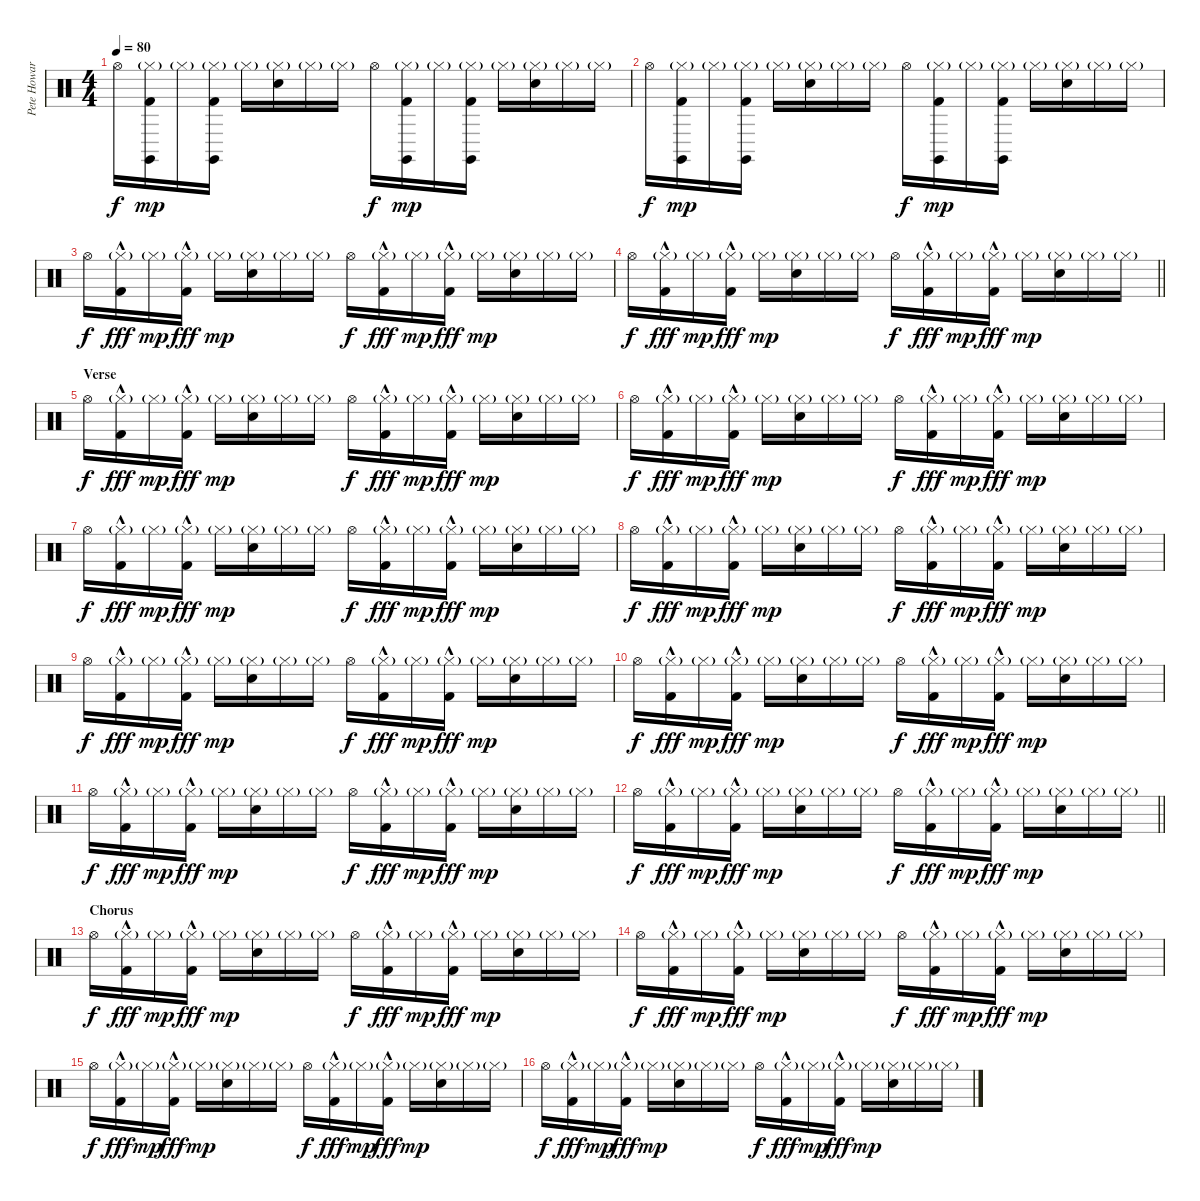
\track ("Pete Howard - Drums" "Pete Howar") {instrument percussion}
\staff {score}
\articulation defaults
\ts (4 4)
\tempo 80
\clef neutral
\ks c "Hi-Hat (open)".16{dy f}
("Hi-Hat (closed)"{g} "Claves (hit)" "Kick (hit) 2").16{dy mp} "Hi-Hat (closed)"{g}.16 ("Hi-Hat (closed)"{g} "Claves (hit)" "Kick (hit) 2").16 "Hi-Hat (closed)"{g}.16 ("Hi-Hat (closed)"{g} "Electric Snare (hit)").16 "Hi-Hat (closed)"{g}.16 "Hi-Hat (closed)"{g}.16 "Hi-Hat (open)".16{dy f} ("Hi-Hat (closed)"{g} "Claves (hit)" "Kick (hit) 2").16{dy mp} "Hi-Hat (closed)"{g}.16 ("Hi-Hat (closed)"{g} "Claves (hit)" "Kick (hit) 2").16 "Hi-Hat (closed)"{g}.16 ("Hi-Hat (closed)"{g} "Electric Snare (hit)").16 "Hi-Hat (closed)"{g}.16 "Hi-Hat (closed)"{g}.16 |
"Hi-Hat (open)".16{dy f} ("Hi-Hat (closed)"{g} "Claves (hit)" "Kick (hit) 2").16{dy mp} "Hi-Hat (closed)"{g}.16 ("Hi-Hat (closed)"{g} "Claves (hit)" "Kick (hit) 2").16 "Hi-Hat (closed)"{g}.16 ("Hi-Hat (closed)"{g} "Electric Snare (hit)").16 "Hi-Hat (closed)"{g}.16 "Hi-Hat (closed)"{g}.16 "Hi-Hat (open)".16{dy f} ("Hi-Hat (closed)"{g} "Claves (hit)" "Kick (hit) 2").16{dy mp} "Hi-Hat (closed)"{g}.16 ("Hi-Hat (closed)"{g} "Claves (hit)" "Kick (hit) 2").16 "Hi-Hat (closed)"{g}.16 ("Hi-Hat (closed)"{g} "Electric Snare (hit)").16 "Hi-Hat (closed)"{g}.16 "Hi-Hat (closed)"{g}.16 |
"Hi-Hat (open)".16{dy f} ("Hi-Hat (closed)"{g} "Kick (hit) 2"{hac}).16{dy fff} "Hi-Hat (closed)"{g}.16{dy mp} ("Hi-Hat (closed)"{g} "Kick (hit) 2"{hac}).16{dy fff} "Hi-Hat (closed)"{g}.16{dy mp} ("Hi-Hat (closed)"{g} "Electric Snare (hit)").16 "Hi-Hat (closed)"{g}.16 "Hi-Hat (closed)"{g}.16 "Hi-Hat (open)".16{dy f} ("Hi-Hat (closed)"{g} "Kick (hit) 2"{hac}).16{dy fff} "Hi-Hat (closed)"{g}.16{dy mp} ("Hi-Hat (closed)"{g} "Kick (hit) 2"{hac}).16{dy fff} "Hi-Hat (closed)"{g}.16{dy mp} ("Hi-Hat (closed)"{g} "Electric Snare (hit)").16 "Hi-Hat (closed)"{g}.16 "Hi-Hat (closed)"{g}.16 |
\barLineRight lightlight "Hi-Hat (open)".16{dy f}
("Hi-Hat (closed)"{g} "Kick (hit) 2"{hac}).16{dy fff} "Hi-Hat (closed)"{g}.16{dy mp} ("Hi-Hat (closed)"{g} "Kick (hit) 2"{hac}).16{dy fff} "Hi-Hat (closed)"{g}.16{dy mp} ("Hi-Hat (closed)"{g} "Electric Snare (hit)").16 "Hi-Hat (closed)"{g}.16 "Hi-Hat (closed)"{g}.16 "Hi-Hat (open)".16{dy f} ("Hi-Hat (closed)"{g} "Kick (hit) 2"{hac}).16{dy fff} "Hi-Hat (closed)"{g}.16{dy mp} ("Hi-Hat (closed)"{g} "Kick (hit) 2"{hac}).16{dy fff} "Hi-Hat (closed)"{g}.16{dy mp} ("Hi-Hat (closed)"{g} "Electric Snare (hit)").16 "Hi-Hat (closed)"{g}.16 "Hi-Hat (closed)"{g}.16 |
\section ("" "Verse")
"Hi-Hat (open)".16{dy f} ("Hi-Hat (closed)"{g} "Kick (hit) 2"{hac}).16{dy fff} "Hi-Hat (closed)"{g}.16{dy mp} ("Hi-Hat (closed)"{g} "Kick (hit) 2"{hac}).16{dy fff} "Hi-Hat (closed)"{g}.16{dy mp} ("Hi-Hat (closed)"{g} "Electric Snare (hit)").16 "Hi-Hat (closed)"{g}.16 "Hi-Hat (closed)"{g}.16 "Hi-Hat (open)".16{dy f} ("Hi-Hat (closed)"{g} "Kick (hit) 2"{hac}).16{dy fff} "Hi-Hat (closed)"{g}.16{dy mp} ("Hi-Hat (closed)"{g} "Kick (hit) 2"{hac}).16{dy fff} "Hi-Hat (closed)"{g}.16{dy mp} ("Hi-Hat (closed)"{g} "Electric Snare (hit)").16 "Hi-Hat (closed)"{g}.16 "Hi-Hat (closed)"{g}.16 |
"Hi-Hat (open)".16{dy f} ("Hi-Hat (closed)"{g} "Kick (hit) 2"{hac}).16{dy fff} "Hi-Hat (closed)"{g}.16{dy mp} ("Hi-Hat (closed)"{g} "Kick (hit) 2"{hac}).16{dy fff} "Hi-Hat (closed)"{g}.16{dy mp} ("Hi-Hat (closed)"{g} "Electric Snare (hit)").16 "Hi-Hat (closed)"{g}.16 "Hi-Hat (closed)"{g}.16 "Hi-Hat (open)".16{dy f} ("Hi-Hat (closed)"{g} "Kick (hit) 2"{hac}).16{dy fff} "Hi-Hat (closed)"{g}.16{dy mp} ("Hi-Hat (closed)"{g} "Kick (hit) 2"{hac}).16{dy fff} "Hi-Hat (closed)"{g}.16{dy mp} ("Hi-Hat (closed)"{g} "Electric Snare (hit)").16 "Hi-Hat (closed)"{g}.16 "Hi-Hat (closed)"{g}.16 |
"Hi-Hat (open)".16{dy f} ("Hi-Hat (closed)"{g} "Kick (hit) 2"{hac}).16{dy fff} "Hi-Hat (closed)"{g}.16{dy mp} ("Hi-Hat (closed)"{g} "Kick (hit) 2"{hac}).16{dy fff} "Hi-Hat (closed)"{g}.16{dy mp} ("Hi-Hat (closed)"{g} "Electric Snare (hit)").16 "Hi-Hat (closed)"{g}.16 "Hi-Hat (closed)"{g}.16 "Hi-Hat (open)".16{dy f} ("Hi-Hat (closed)"{g} "Kick (hit) 2"{hac}).16{dy fff} "Hi-Hat (closed)"{g}.16{dy mp} ("Hi-Hat (closed)"{g} "Kick (hit) 2"{hac}).16{dy fff} "Hi-Hat (closed)"{g}.16{dy mp} ("Hi-Hat (closed)"{g} "Electric Snare (hit)").16 "Hi-Hat (closed)"{g}.16 "Hi-Hat (closed)"{g}.16 |
"Hi-Hat (open)".16{dy f} ("Hi-Hat (closed)"{g} "Kick (hit) 2"{hac}).16{dy fff} "Hi-Hat (closed)"{g}.16{dy mp} ("Hi-Hat (closed)"{g} "Kick (hit) 2"{hac}).16{dy fff} "Hi-Hat (closed)"{g}.16{dy mp} ("Hi-Hat (closed)"{g} "Electric Snare (hit)").16 "Hi-Hat (closed)"{g}.16 "Hi-Hat (closed)"{g}.16 "Hi-Hat (open)".16{dy f} ("Hi-Hat (closed)"{g} "Kick (hit) 2"{hac}).16{dy fff} "Hi-Hat (closed)"{g}.16{dy mp} ("Hi-Hat (closed)"{g} "Kick (hit) 2"{hac}).16{dy fff} "Hi-Hat (closed)"{g}.16{dy mp} ("Hi-Hat (closed)"{g} "Electric Snare (hit)").16 "Hi-Hat (closed)"{g}.16 "Hi-Hat (closed)"{g}.16 |
"Hi-Hat (open)".16{dy f} ("Hi-Hat (closed)"{g} "Kick (hit) 2"{hac}).16{dy fff} "Hi-Hat (closed)"{g}.16{dy mp} ("Hi-Hat (closed)"{g} "Kick (hit) 2"{hac}).16{dy fff} "Hi-Hat (closed)"{g}.16{dy mp} ("Hi-Hat (closed)"{g} "Electric Snare (hit)").16 "Hi-Hat (closed)"{g}.16 "Hi-Hat (closed)"{g}.16 "Hi-Hat (open)".16{dy f} ("Hi-Hat (closed)"{g} "Kick (hit) 2"{hac}).16{dy fff} "Hi-Hat (closed)"{g}.16{dy mp} ("Hi-Hat (closed)"{g} "Kick (hit) 2"{hac}).16{dy fff} "Hi-Hat (closed)"{g}.16{dy mp} ("Hi-Hat (closed)"{g} "Electric Snare (hit)").16 "Hi-Hat (closed)"{g}.16 "Hi-Hat (closed)"{g}.16 |
"Hi-Hat (open)".16{dy f} ("Hi-Hat (closed)"{g} "Kick (hit) 2"{hac}).16{dy fff} "Hi-Hat (closed)"{g}.16{dy mp} ("Hi-Hat (closed)"{g} "Kick (hit) 2"{hac}).16{dy fff} "Hi-Hat (closed)"{g}.16{dy mp} ("Hi-Hat (closed)"{g} "Electric Snare (hit)").16 "Hi-Hat (closed)"{g}.16 "Hi-Hat (closed)"{g}.16 "Hi-Hat (open)".16{dy f} ("Hi-Hat (closed)"{g} "Kick (hit) 2"{hac}).16{dy fff} "Hi-Hat (closed)"{g}.16{dy mp} ("Hi-Hat (closed)"{g} "Kick (hit) 2"{hac}).16{dy fff} "Hi-Hat (closed)"{g}.16{dy mp} ("Hi-Hat (closed)"{g} "Electric Snare (hit)").16 "Hi-Hat (closed)"{g}.16 "Hi-Hat (closed)"{g}.16 |
"Hi-Hat (open)".16{dy f} ("Hi-Hat (closed)"{g} "Kick (hit) 2"{hac}).16{dy fff} "Hi-Hat (closed)"{g}.16{dy mp} ("Hi-Hat (closed)"{g} "Kick (hit) 2"{hac}).16{dy fff} "Hi-Hat (closed)"{g}.16{dy mp} ("Hi-Hat (closed)"{g} "Electric Snare (hit)").16 "Hi-Hat (closed)"{g}.16 "Hi-Hat (closed)"{g}.16 "Hi-Hat (open)".16{dy f} ("Hi-Hat (closed)"{g} "Kick (hit) 2"{hac}).16{dy fff} "Hi-Hat (closed)"{g}.16{dy mp} ("Hi-Hat (closed)"{g} "Kick (hit) 2"{hac}).16{dy fff} "Hi-Hat (closed)"{g}.16{dy mp} ("Hi-Hat (closed)"{g} "Electric Snare (hit)").16 "Hi-Hat (closed)"{g}.16 "Hi-Hat (closed)"{g}.16 |
\barLineRight lightlight "Hi-Hat (open)".16{dy f}
("Hi-Hat (closed)"{g} "Kick (hit) 2"{hac}).16{dy fff} "Hi-Hat (closed)"{g}.16{dy mp} ("Hi-Hat (closed)"{g} "Kick (hit) 2"{hac}).16{dy fff} "Hi-Hat (closed)"{g}.16{dy mp} ("Hi-Hat (closed)"{g} "Electric Snare (hit)").16 "Hi-Hat (closed)"{g}.16 "Hi-Hat (closed)"{g}.16 "Hi-Hat (open)".16{dy f} ("Hi-Hat (closed)"{g} "Kick (hit) 2"{hac}).16{dy fff} "Hi-Hat (closed)"{g}.16{dy mp} ("Hi-Hat (closed)"{g} "Kick (hit) 2"{hac}).16{dy fff} "Hi-Hat (closed)"{g}.16{dy mp} ("Hi-Hat (closed)"{g} "Electric Snare (hit)").16 "Hi-Hat (closed)"{g}.16 "Hi-Hat (closed)"{g}.16 |
\section ("" "Chorus")
"Hi-Hat (open)".16{dy f} ("Hi-Hat (closed)"{g} "Kick (hit) 2"{hac}).16{dy fff} "Hi-Hat (closed)"{g}.16{dy mp} ("Hi-Hat (closed)"{g} "Kick (hit) 2"{hac}).16{dy fff} "Hi-Hat (closed)"{g}.16{dy mp} ("Hi-Hat (closed)"{g} "Electric Snare (hit)").16 "Hi-Hat (closed)"{g}.16 "Hi-Hat (closed)"{g}.16 "Hi-Hat (open)".16{dy f} ("Hi-Hat (closed)"{g} "Kick (hit) 2"{hac}).16{dy fff} "Hi-Hat (closed)"{g}.16{dy mp} ("Hi-Hat (closed)"{g} "Kick (hit) 2"{hac}).16{dy fff} "Hi-Hat (closed)"{g}.16{dy mp} ("Hi-Hat (closed)"{g} "Electric Snare (hit)").16 "Hi-Hat (closed)"{g}.16 "Hi-Hat (closed)"{g}.16 |
"Hi-Hat (open)".16{dy f} ("Hi-Hat (closed)"{g} "Kick (hit) 2"{hac}).16{dy fff} "Hi-Hat (closed)"{g}.16{dy mp} ("Hi-Hat (closed)"{g} "Kick (hit) 2"{hac}).16{dy fff} "Hi-Hat (closed)"{g}.16{dy mp} ("Hi-Hat (closed)"{g} "Electric Snare (hit)").16 "Hi-Hat (closed)"{g}.16 "Hi-Hat (closed)"{g}.16 "Hi-Hat (open)".16{dy f} ("Hi-Hat (closed)"{g} "Kick (hit) 2"{hac}).16{dy fff} "Hi-Hat (closed)"{g}.16{dy mp} ("Hi-Hat (closed)"{g} "Kick (hit) 2"{hac}).16{dy fff} "Hi-Hat (closed)"{g}.16{dy mp} ("Hi-Hat (closed)"{g} "Electric Snare (hit)").16 "Hi-Hat (closed)"{g}.16 "Hi-Hat (closed)"{g}.16 |
"Hi-Hat (open)".16{dy f} ("Hi-Hat (closed)"{g} "Kick (hit) 2"{hac}).16{dy fff} "Hi-Hat (closed)"{g}.16{dy mp} ("Hi-Hat (closed)"{g} "Kick (hit) 2"{hac}).16{dy fff} "Hi-Hat (closed)"{g}.16{dy mp} ("Hi-Hat (closed)"{g} "Electric Snare (hit)").16 "Hi-Hat (closed)"{g}.16 "Hi-Hat (closed)"{g}.16 "Hi-Hat (open)".16{dy f} ("Hi-Hat (closed)"{g} "Kick (hit) 2"{hac}).16{dy fff} "Hi-Hat (closed)"{g}.16{dy mp} ("Hi-Hat (closed)"{g} "Kick (hit) 2"{hac}).16{dy fff} "Hi-Hat (closed)"{g}.16{dy mp} ("Hi-Hat (closed)"{g} "Electric Snare (hit)").16 "Hi-Hat (closed)"{g}.16 "Hi-Hat (closed)"{g}.16 |
"Hi-Hat (open)".16{dy f} ("Hi-Hat (closed)"{g} "Kick (hit) 2"{hac}).16{dy fff} "Hi-Hat (closed)"{g}.16{dy mp} ("Hi-Hat (closed)"{g} "Kick (hit) 2"{hac}).16{dy fff} "Hi-Hat (closed)"{g}.16{dy mp} ("Hi-Hat (closed)"{g} "Electric Snare (hit)").16 "Hi-Hat (closed)"{g}.16 "Hi-Hat (closed)"{g}.16 "Hi-Hat (open)".16{dy f} ("Hi-Hat (closed)"{g} "Kick (hit) 2"{hac}).16{dy fff} "Hi-Hat (closed)"{g}.16{dy mp} ("Hi-Hat (closed)"{g} "Kick (hit) 2"{hac}).16{dy fff} "Hi-Hat (closed)"{g}.16{dy mp} ("Hi-Hat (closed)"{g} "Electric Snare (hit)").16 "Hi-Hat (closed)"{g}.16 "Hi-Hat (closed)"{g}.16
